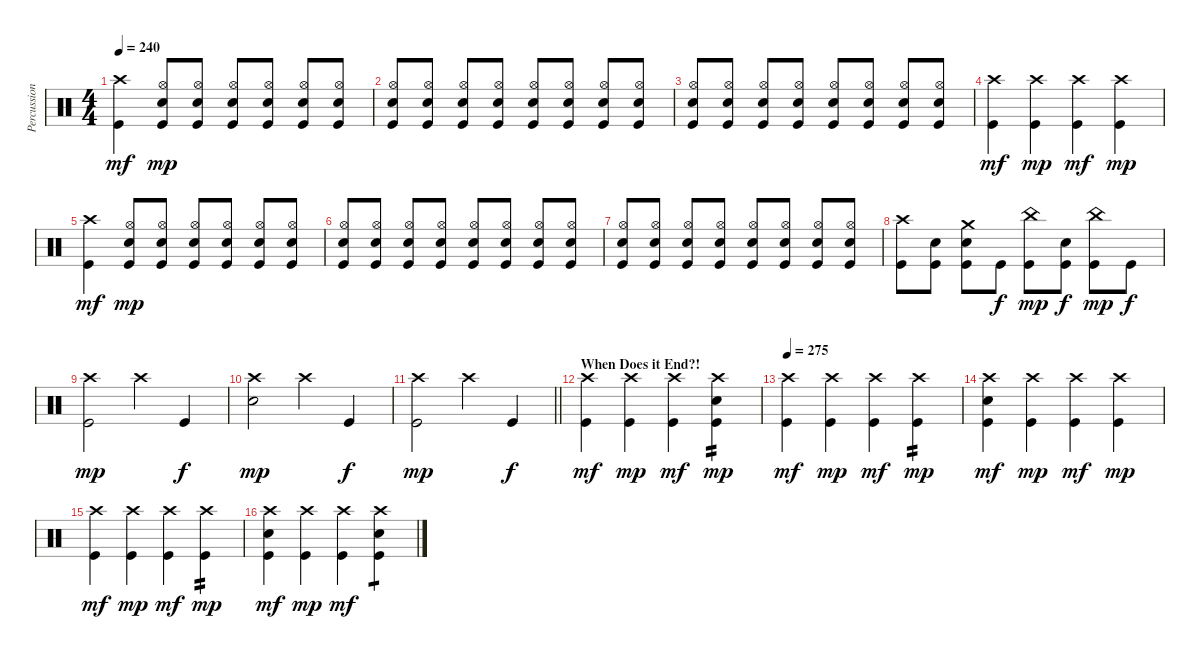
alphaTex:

\track ("Percussion" "Percussion") {instrument percussion}
\staff {score}
\articulation defaults
\ts (4 4)
\tempo 240
\clef neutral
\ks c
("Crash high (hit)" "Kick (hit)").4{dy mf} ("Hi-Hat (open)" "Electric Snare (hit)" "Kick (hit)").8{dy mp} ("Hi-Hat (open)" "Electric Snare (hit)" "Kick (hit)").8 ("Hi-Hat (open)" "Electric Snare (hit)" "Kick (hit)").8 ("Hi-Hat (open)" "Electric Snare (hit)" "Kick (hit)").8 ("Hi-Hat (open)" "Electric Snare (hit)" "Kick (hit)").8 ("Hi-Hat (open)" "Electric Snare (hit)" "Kick (hit)").8 |
("Hi-Hat (open)" "Electric Snare (hit)" "Kick (hit)").8 ("Hi-Hat (open)" "Electric Snare (hit)" "Kick (hit)").8 ("Hi-Hat (open)" "Electric Snare (hit)" "Kick (hit)").8 ("Hi-Hat (open)" "Electric Snare (hit)" "Kick (hit)").8 ("Hi-Hat (open)" "Electric Snare (hit)" "Kick (hit)").8 ("Hi-Hat (open)" "Electric Snare (hit)" "Kick (hit)").8 ("Hi-Hat (open)" "Electric Snare (hit)" "Kick (hit)").8 ("Hi-Hat (open)" "Electric Snare (hit)" "Kick (hit)").8 |
("Hi-Hat (open)" "Electric Snare (hit)" "Kick (hit)").8 ("Hi-Hat (open)" "Electric Snare (hit)" "Kick (hit)").8 ("Hi-Hat (open)" "Electric Snare (hit)" "Kick (hit)").8 ("Hi-Hat (open)" "Electric Snare (hit)" "Kick (hit)").8 ("Hi-Hat (open)" "Electric Snare (hit)" "Kick (hit)").8 ("Hi-Hat (open)" "Electric Snare (hit)" "Kick (hit)").8 ("Hi-Hat (open)" "Electric Snare (hit)" "Kick (hit)").8 ("Hi-Hat (open)" "Electric Snare (hit)" "Kick (hit)").8 |
("Crash high (hit)" "Kick (hit)").4{dy mf} ("Crash high (hit)" "Kick (hit)").4{dy mp} ("Crash high (hit)" "Kick (hit)").4{dy mf} ("Crash high (hit)" "Kick (hit)").4{dy mp} |
("Crash high (hit)" "Kick (hit)").4{dy mf} ("Hi-Hat (open)" "Electric Snare (hit)" "Kick (hit)").8{dy mp} ("Hi-Hat (open)" "Electric Snare (hit)" "Kick (hit)").8 ("Hi-Hat (open)" "Electric Snare (hit)" "Kick (hit)").8 ("Hi-Hat (open)" "Electric Snare (hit)" "Kick (hit)").8 ("Hi-Hat (open)" "Electric Snare (hit)" "Kick (hit)").8 ("Hi-Hat (open)" "Electric Snare (hit)" "Kick (hit)").8 |
("Hi-Hat (open)" "Electric Snare (hit)" "Kick (hit)").8 ("Hi-Hat (open)" "Electric Snare (hit)" "Kick (hit)").8 ("Hi-Hat (open)" "Electric Snare (hit)" "Kick (hit)").8 ("Hi-Hat (open)" "Electric Snare (hit)" "Kick (hit)").8 ("Hi-Hat (open)" "Electric Snare (hit)" "Kick (hit)").8 ("Hi-Hat (open)" "Electric Snare (hit)" "Kick (hit)").8 ("Hi-Hat (open)" "Electric Snare (hit)" "Kick (hit)").8 ("Hi-Hat (open)" "Electric Snare (hit)" "Kick (hit)").8 |
("Hi-Hat (open)" "Electric Snare (hit)" "Kick (hit)").8 ("Hi-Hat (open)" "Electric Snare (hit)" "Kick (hit)").8 ("Hi-Hat (open)" "Electric Snare (hit)" "Kick (hit)").8 ("Hi-Hat (open)" "Electric Snare (hit)" "Kick (hit)").8 ("Hi-Hat (open)" "Electric Snare (hit)" "Kick (hit)").8 ("Hi-Hat (open)" "Electric Snare (hit)" "Kick (hit)").8 ("Hi-Hat (open)" "Electric Snare (hit)" "Kick (hit)").8 ("Hi-Hat (open)" "Electric Snare (hit)" "Kick (hit)").8 |
("Crash high (hit)" "Kick (hit)").8 ("Electric Snare (hit)" "Kick (hit)").8 ("Crash medium (hit)" "Electric Snare (hit)" "Kick (hit)").8 "Kick (hit)".8{dy f} ("China (hit)" "Kick (hit)").8{dy mp} ("Electric Snare (hit)" "Kick (hit)").8{dy f} ("China (hit)" "Kick (hit)").8{dy mp} "Kick (hit)".8{dy f} |
("Crash high (hit)" "Kick (hit)").2{dy mp} "Crash high (hit)".4 "Kick (hit)".4{dy f} |
("Crash high (hit)" "Electric Snare (hit)").2{dy mp} "Crash high (hit)".4 "Kick (hit)".4{dy f} |
\barLineRight lightlight
("Crash high (hit)" "Kick (hit)").2{dy mp} "Crash high (hit)".4 "Kick (hit)".4{dy f} |
\section ("" "When Does it End?!")
("Crash high (hit)" "Kick (hit)").4{dy mf} ("Crash high (hit)" "Kick (hit)").4{dy mp} ("Crash high (hit)" "Kick (hit)").4{dy mf} ("Crash high (hit)" "Electric Snare (hit)" "Kick (hit)").4{tp 2 dy mp} |
\tempo 275
("Crash high (hit)" "Kick (hit)").4{dy mf} ("Crash high (hit)" "Kick (hit)").4{dy mp} ("Crash high (hit)" "Kick (hit)").4{dy mf} ("Crash high (hit)" "Kick (hit)").4{tp 2 dy mp} |
("Crash high (hit)" "Electric Snare (hit)" "Kick (hit)").4{dy mf} ("Crash high (hit)" "Kick (hit)").4{dy mp} ("Crash high (hit)" "Kick (hit)").4{dy mf} ("Crash high (hit)" "Kick (hit)").4{dy mp} |
("Crash high (hit)" "Kick (hit)").4{dy mf} ("Crash high (hit)" "Kick (hit)").4{dy mp} ("Crash high (hit)" "Kick (hit)").4{dy mf} ("Crash high (hit)" "Kick (hit)").4{tp 2 dy mp} |
("Crash high (hit)" "Electric Snare (hit)" "Kick (hit)").4{dy mf} ("Crash high (hit)" "Kick (hit)").4{dy mp} ("Crash high (hit)" "Kick (hit)").4{dy mf} ("Crash high (hit)" "Electric Snare (hit)" "Kick (hit)").4{tp 1}
